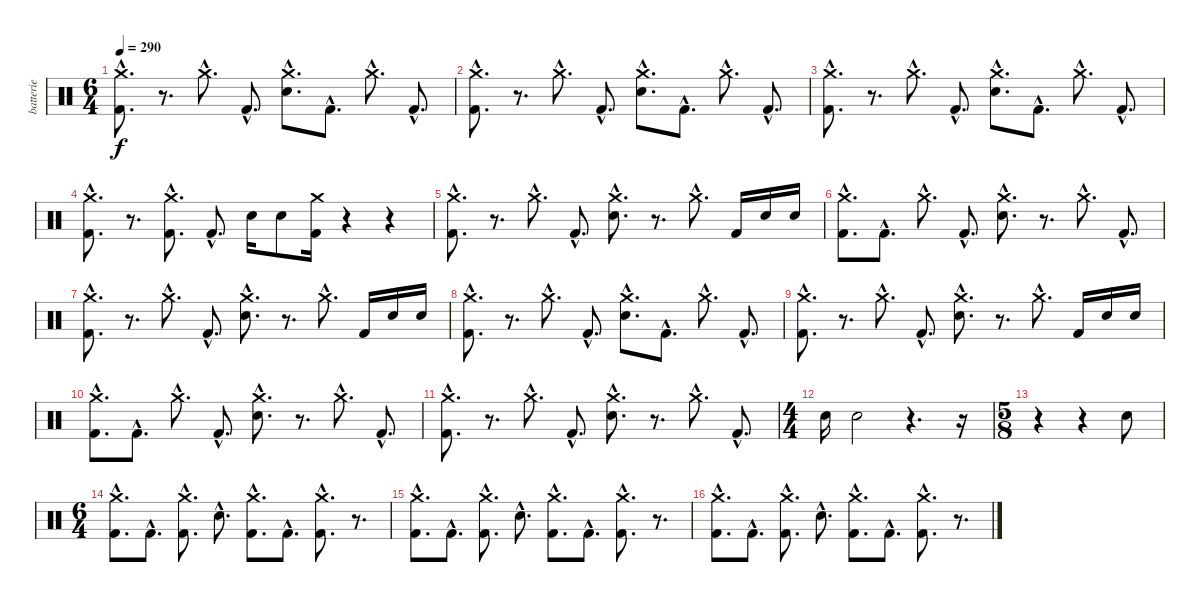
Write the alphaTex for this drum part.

\track ("batterie" "batterie") {instrument percussion}
\staff {score}
\articulation defaults
\ts (6 4)
\tempo 290
\clef neutral
\ks c
("Crash medium (hit)"{hac} "Kick (hit) 2"{hac}).8{d dy f} r.8{d} "Crash medium (hit)"{hac}.8{d} "Kick (hit) 2"{hac}.8{d} ("Crash medium (hit)"{hac} "Electric Snare (hit)"{hac}).8{d} "Kick (hit) 2"{hac}.8{d} "Crash medium (hit)"{hac}.8{d} "Kick (hit) 2"{hac}.8{d} |
("Crash medium (hit)"{hac} "Kick (hit) 2"{hac}).8{d} r.8{d} "Crash medium (hit)"{hac}.8{d} "Kick (hit) 2"{hac}.8{d} ("Crash medium (hit)"{hac} "Electric Snare (hit)"{hac}).8{d} "Kick (hit) 2"{hac}.8{d} "Crash medium (hit)"{hac}.8{d} "Kick (hit) 2"{hac}.8{d} |
("Crash medium (hit)"{hac} "Kick (hit) 2"{hac}).8{d} r.8{d} "Crash medium (hit)"{hac}.8{d} "Kick (hit) 2"{hac}.8{d} ("Crash medium (hit)"{hac} "Electric Snare (hit)"{hac}).8{d} "Kick (hit) 2"{hac}.8{d} "Crash medium (hit)"{hac}.8{d} "Kick (hit) 2"{hac}.8{d} |
("Crash medium (hit)"{hac} "Kick (hit) 2"{hac}).8{d} r.8{d} ("Crash medium (hit)"{hac} "Kick (hit) 2"{hac}).8{d} "Kick (hit) 2"{hac}.8{d} "Electric Snare (hit)".16 "Electric Snare (hit)".8 ("Crash medium (hit)" "Kick (hit) 2").16 r.4 r.4 |
("Crash medium (hit)"{hac} "Kick (hit) 2"{hac}).8{d} r.8{d} "Crash medium (hit)"{hac}.8{d} "Kick (hit) 2"{hac}.8{d} ("Crash medium (hit)"{hac} "Electric Snare (hit)"{hac}).8{d} r.8{d} "Crash medium (hit)"{hac}.8{d} "Kick (hit) 2".16 "Electric Snare (hit)".16 "Electric Snare (hit)".16 |
("Crash medium (hit)"{hac} "Kick (hit) 2"{hac}).8{d} "Kick (hit) 2"{hac}.8{d} "Crash medium (hit)"{hac}.8{d} "Kick (hit) 2"{hac}.8{d} ("Crash medium (hit)"{hac} "Electric Snare (hit)"{hac}).8{d} r.8{d} "Crash medium (hit)"{hac}.8{d} "Kick (hit) 2"{hac}.8{d} |
("Crash medium (hit)"{hac} "Kick (hit) 2"{hac}).8{d} r.8{d} "Crash medium (hit)"{hac}.8{d} "Kick (hit) 2"{hac}.8{d} ("Crash medium (hit)"{hac} "Electric Snare (hit)"{hac}).8{d} r.8{d} "Crash medium (hit)"{hac}.8{d} "Kick (hit) 2".16 "Electric Snare (hit)".16 "Electric Snare (hit)".16 |
("Crash medium (hit)"{hac} "Kick (hit) 2"{hac}).8{d} r.8{d} "Crash medium (hit)"{hac}.8{d} "Kick (hit) 2"{hac}.8{d} ("Crash medium (hit)"{hac} "Electric Snare (hit)"{hac}).8{d} "Kick (hit) 2"{hac}.8{d} "Crash medium (hit)"{hac}.8{d} "Kick (hit) 2"{hac}.8{d} |
("Crash medium (hit)"{hac} "Kick (hit) 2"{hac}).8{d} r.8{d} "Crash medium (hit)"{hac}.8{d} "Kick (hit) 2"{hac}.8{d} ("Crash medium (hit)"{hac} "Electric Snare (hit)"{hac}).8{d} r.8{d} "Crash medium (hit)"{hac}.8{d} "Kick (hit) 2".16 "Electric Snare (hit)".16 "Electric Snare (hit)".16 |
("Crash medium (hit)"{hac} "Kick (hit) 2"{hac}).8{d} "Kick (hit) 2"{hac}.8{d} "Crash medium (hit)"{hac}.8{d} "Kick (hit) 2"{hac}.8{d} ("Crash medium (hit)"{hac} "Electric Snare (hit)"{hac}).8{d} r.8{d} "Crash medium (hit)"{hac}.8{d} "Kick (hit) 2"{hac}.8{d} |
("Crash medium (hit)"{hac} "Kick (hit) 2"{hac}).8{d} r.8{d} "Crash medium (hit)"{hac}.8{d} "Kick (hit) 2"{hac}.8{d} ("Crash medium (hit)"{hac} "Electric Snare (hit)"{hac}).8{d} r.8{d} "Crash medium (hit)"{hac}.8{d} "Kick (hit) 2"{hac}.8{d} |
\ts (4 4)
"Electric Snare (hit)".16 "Electric Snare (hit)".2 r.4{d} r.16 |
\ts (5 8)
r.4 r.4 "Electric Snare (hit)".8 |
\ts (6 4)
("Crash medium (hit)"{hac} "Kick (hit) 2"{hac}).8{d} "Kick (hit) 2"{hac}.8{d} ("Crash medium (hit)"{hac} "Kick (hit) 2"{hac}).8{d} "Electric Snare (hit)"{hac}.8{d} ("Crash medium (hit)"{hac} "Kick (hit) 2"{hac}).8{d} "Kick (hit) 2"{hac}.8{d} ("Crash medium (hit)"{hac} "Kick (hit) 2"{hac}).8{d} r.8{d} |
("Crash medium (hit)"{hac} "Kick (hit) 2"{hac}).8{d} "Kick (hit) 2"{hac}.8{d} ("Crash medium (hit)"{hac} "Kick (hit) 2"{hac}).8{d} "Electric Snare (hit)"{hac}.8{d} ("Crash medium (hit)"{hac} "Kick (hit) 2"{hac}).8{d} "Kick (hit) 2"{hac}.8{d} ("Crash medium (hit)"{hac} "Kick (hit) 2"{hac}).8{d} r.8{d} |
("Crash medium (hit)"{hac} "Kick (hit) 2"{hac}).8{d} "Kick (hit) 2"{hac}.8{d} ("Crash medium (hit)"{hac} "Kick (hit) 2"{hac}).8{d} "Electric Snare (hit)"{hac}.8{d} ("Crash medium (hit)"{hac} "Kick (hit) 2"{hac}).8{d} "Kick (hit) 2"{hac}.8{d} ("Crash medium (hit)"{hac} "Kick (hit) 2"{hac}).8{d} r.8{d}
